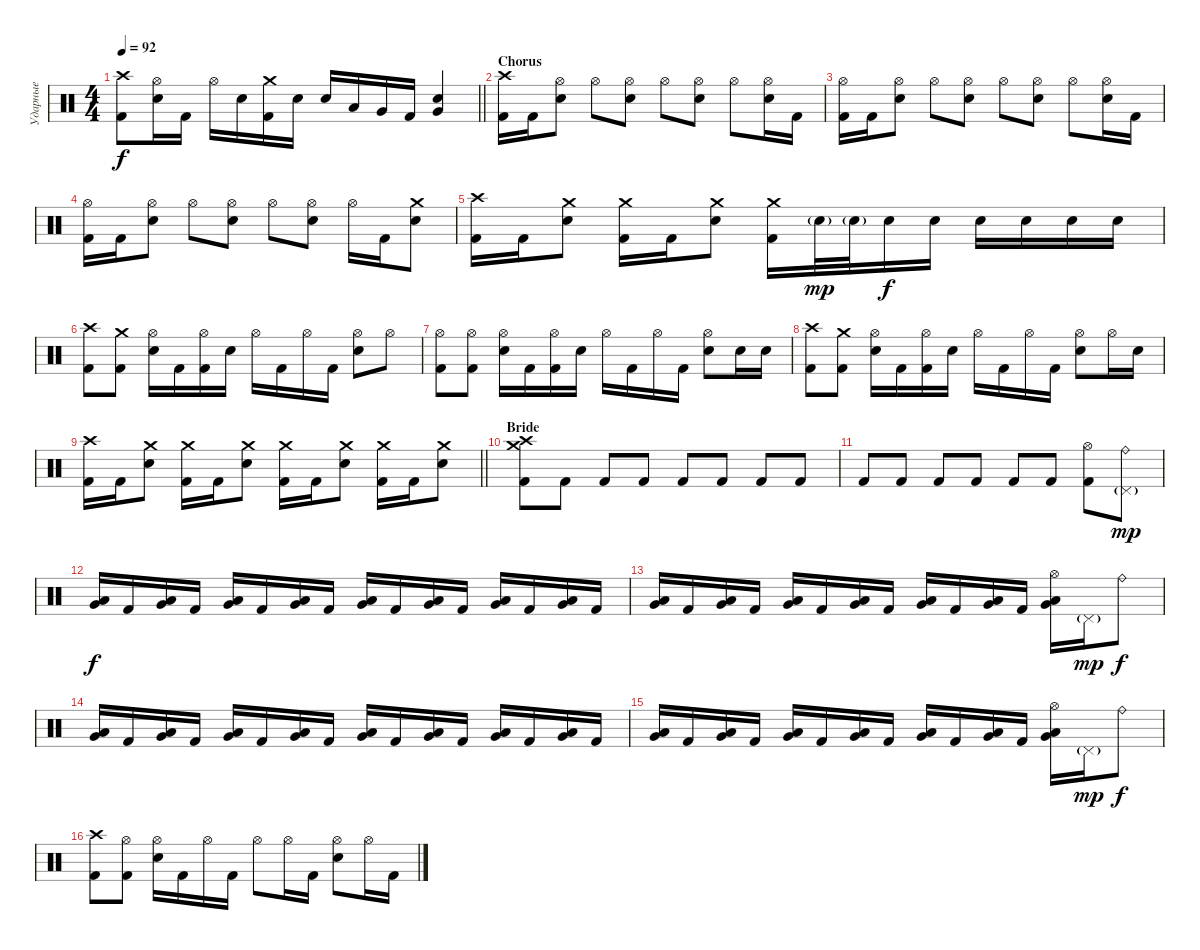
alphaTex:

\track ("Ударные" "Ударные") {instrument percussion}
\staff {score}
\articulation defaults
\ts (4 4)
\tempo 92
\clef neutral
\barLineRight lightlight
\ks c
("Crash high (hit)" "Kick (hit) 2").8{dy f} ("Hi-Hat (open)" "Electric Snare (hit)").16 "Kick (hit) 2".16 "Hi-Hat (open)".16 "Electric Snare (hit)".16 ("Crash medium (hit)" "Kick (hit) 2").16 "Electric Snare (hit)".16 "Electric Snare (hit)".16 "Low Tom (hit)".16 "Very Low Tom (hit)".16 "Kick (hit) 2".16 ("Electric Snare (hit)" "Very Low Tom (hit)").4 |
\section ("" "Chorus")
("Crash high (hit)" "Kick (hit) 2").16 "Kick (hit) 2".16 ("Hi-Hat (open)" "Electric Snare (hit)").8 "Hi-Hat (open)".8 ("Hi-Hat (open)" "Electric Snare (hit)").8 "Hi-Hat (open)".8 ("Hi-Hat (open)" "Electric Snare (hit)").8 "Hi-Hat (open)".8 ("Hi-Hat (open)" "Electric Snare (hit)").16 "Kick (hit) 2".16 |
("Hi-Hat (open)" "Kick (hit) 2").16 "Kick (hit) 2".16 ("Hi-Hat (open)" "Electric Snare (hit)").8 "Hi-Hat (open)".8 ("Hi-Hat (open)" "Electric Snare (hit)").8 "Hi-Hat (open)".8 ("Hi-Hat (open)" "Electric Snare (hit)").8 "Hi-Hat (open)".8 ("Hi-Hat (open)" "Electric Snare (hit)").16 "Kick (hit) 2".16 |
("Hi-Hat (open)" "Kick (hit) 2").16 "Kick (hit) 2".16 ("Hi-Hat (open)" "Electric Snare (hit)").8 "Hi-Hat (open)".8 ("Hi-Hat (open)" "Electric Snare (hit)").8 "Hi-Hat (open)".8 ("Hi-Hat (open)" "Electric Snare (hit)").8 "Hi-Hat (open)".16 "Kick (hit) 2".16 ("Crash medium (hit)" "Electric Snare (hit)").8 |
("Crash high (hit)" "Kick (hit) 2").16 "Kick (hit) 2".16 ("Crash medium (hit)" "Electric Snare (hit)").8 ("Crash medium (hit)" "Kick (hit) 2").16 "Kick (hit) 2".16 ("Crash medium (hit)" "Electric Snare (hit)").8 ("Crash medium (hit)" "Kick (hit) 2").16 "Electric Snare (hit)"{g}.32{dy mp} "Electric Snare (hit)"{g}.32 "Electric Snare (hit)".16{dy f} "Electric Snare (hit)".16 "Electric Snare (hit)".16 "Electric Snare (hit)".16 "Electric Snare (hit)".16 "Electric Snare (hit)".16 |
("Crash high (hit)" "Kick (hit) 2").8 ("Crash medium (hit)" "Kick (hit) 2").8 ("Hi-Hat (open)" "Electric Snare (hit)").16 "Kick (hit) 2".16 ("Hi-Hat (open)" "Kick (hit) 2").16 "Electric Snare (hit)".16 "Hi-Hat (open)".16 "Kick (hit) 2".16 "Hi-Hat (open)".16 "Kick (hit) 2".16 ("Hi-Hat (open)" "Electric Snare (hit)").8 "Hi-Hat (open)".8 |
("Hi-Hat (open)" "Kick (hit) 2").8 ("Hi-Hat (open)" "Kick (hit) 2").8 ("Hi-Hat (open)" "Electric Snare (hit)").16 "Kick (hit) 2".16 ("Hi-Hat (open)" "Kick (hit) 2").16 "Electric Snare (hit)".16 "Hi-Hat (open)".16 "Kick (hit) 2".16 "Hi-Hat (open)".16 "Kick (hit) 2".16 ("Hi-Hat (open)" "Electric Snare (hit)").8 "Electric Snare (hit)".16 "Electric Snare (hit)".16 |
("Crash high (hit)" "Kick (hit) 2").8 ("Crash medium (hit)" "Kick (hit) 2").8 ("Hi-Hat (open)" "Electric Snare (hit)").16 "Kick (hit) 2".16 ("Hi-Hat (open)" "Kick (hit) 2").16 "Electric Snare (hit)".16 "Hi-Hat (open)".16 "Kick (hit) 2".16 "Hi-Hat (open)".16 "Kick (hit) 2".16 ("Hi-Hat (open)" "Electric Snare (hit)").8 "Hi-Hat (open)".16 "Electric Snare (hit)".16 |
\barLineRight lightlight
("Crash high (hit)" "Kick (hit) 2").16 "Kick (hit) 2".16 ("Crash medium (hit)" "Electric Snare (hit)").8 ("Crash medium (hit)" "Kick (hit) 2").16 "Kick (hit) 2".16 ("Crash medium (hit)" "Electric Snare (hit)").8 ("Crash medium (hit)" "Kick (hit) 2").16 "Kick (hit) 2".16 ("Crash medium (hit)" "Electric Snare (hit)").8 ("Crash medium (hit)" "Kick (hit) 2").16 "Kick (hit) 2".16 ("Crash medium (hit)" "Electric Snare (hit)").8 |
\section ("" "Bride")
("Crash high (hit)" "Crash medium (hit)" "Kick (hit) 2").8 "Kick (hit) 2".8 "Kick (hit) 2".8 "Kick (hit) 2".8 "Kick (hit) 2".8 "Kick (hit) 2".8 "Kick (hit) 2".8 "Kick (hit) 2".8 |
"Kick (hit) 2".8 "Kick (hit) 2".8 "Kick (hit) 2".8 "Kick (hit) 2".8 "Kick (hit) 2".8 "Kick (hit) 2".8 ("Hi-Hat (open)" "Kick (hit) 2").8 ("Ride (bell)" "Pedal Hi-Hat (hit)"{g}).8{dy mp} |
("Low Tom (hit)" "Very Low Tom (hit)").16{dy f} "Kick (hit) 2".16 ("Low Tom (hit)" "Very Low Tom (hit)").16 "Kick (hit) 2".16 ("Low Tom (hit)" "Very Low Tom (hit)").16 "Kick (hit) 2".16 ("Low Tom (hit)" "Very Low Tom (hit)").16 "Kick (hit) 2".16 ("Low Tom (hit)" "Very Low Tom (hit)").16 "Kick (hit) 2".16 ("Low Tom (hit)" "Very Low Tom (hit)").16 "Kick (hit) 2".16 ("Low Tom (hit)" "Very Low Tom (hit)").16 "Kick (hit) 2".16 ("Low Tom (hit)" "Very Low Tom (hit)").16 "Kick (hit) 2".16 |
("Low Tom (hit)" "Very Low Tom (hit)").16 "Kick (hit) 2".16 ("Low Tom (hit)" "Very Low Tom (hit)").16 "Kick (hit) 2".16 ("Low Tom (hit)" "Very Low Tom (hit)").16 "Kick (hit) 2".16 ("Low Tom (hit)" "Very Low Tom (hit)").16 "Kick (hit) 2".16 ("Low Tom (hit)" "Very Low Tom (hit)").16 "Kick (hit) 2".16 ("Low Tom (hit)" "Very Low Tom (hit)").16 "Kick (hit) 2".16 ("Hi-Hat (open)" "Low Tom (hit)" "Very Low Tom (hit)").16 "Pedal Hi-Hat (hit)"{g}.16{dy mp} "Ride (bell)".8{dy f} |
("Low Tom (hit)" "Very Low Tom (hit)").16 "Kick (hit) 2".16 ("Low Tom (hit)" "Very Low Tom (hit)").16 "Kick (hit) 2".16 ("Low Tom (hit)" "Very Low Tom (hit)").16 "Kick (hit) 2".16 ("Low Tom (hit)" "Very Low Tom (hit)").16 "Kick (hit) 2".16 ("Low Tom (hit)" "Very Low Tom (hit)").16 "Kick (hit) 2".16 ("Low Tom (hit)" "Very Low Tom (hit)").16 "Kick (hit) 2".16 ("Low Tom (hit)" "Very Low Tom (hit)").16 "Kick (hit) 2".16 ("Low Tom (hit)" "Very Low Tom (hit)").16 "Kick (hit) 2".16 |
("Low Tom (hit)" "Very Low Tom (hit)").16 "Kick (hit) 2".16 ("Low Tom (hit)" "Very Low Tom (hit)").16 "Kick (hit) 2".16 ("Low Tom (hit)" "Very Low Tom (hit)").16 "Kick (hit) 2".16 ("Low Tom (hit)" "Very Low Tom (hit)").16 "Kick (hit) 2".16 ("Low Tom (hit)" "Very Low Tom (hit)").16 "Kick (hit) 2".16 ("Low Tom (hit)" "Very Low Tom (hit)").16 "Kick (hit) 2".16 ("Hi-Hat (open)" "Low Tom (hit)" "Very Low Tom (hit)").16 "Pedal Hi-Hat (hit)"{g}.16{dy mp} "Ride (bell)".8{dy f} |
("Crash high (hit)" "Kick (hit) 2").8 ("Hi-Hat (open)" "Kick (hit) 2").8 ("Hi-Hat (open)" "Electric Snare (hit)").16 "Kick (hit) 2".16 "Hi-Hat (open)".16 "Kick (hit) 2".16 "Hi-Hat (open)".8 "Hi-Hat (open)".16 "Kick (hit) 2".16 ("Hi-Hat (open)" "Electric Snare (hit)").8 "Hi-Hat (open)".16 "Kick (hit) 2".16
